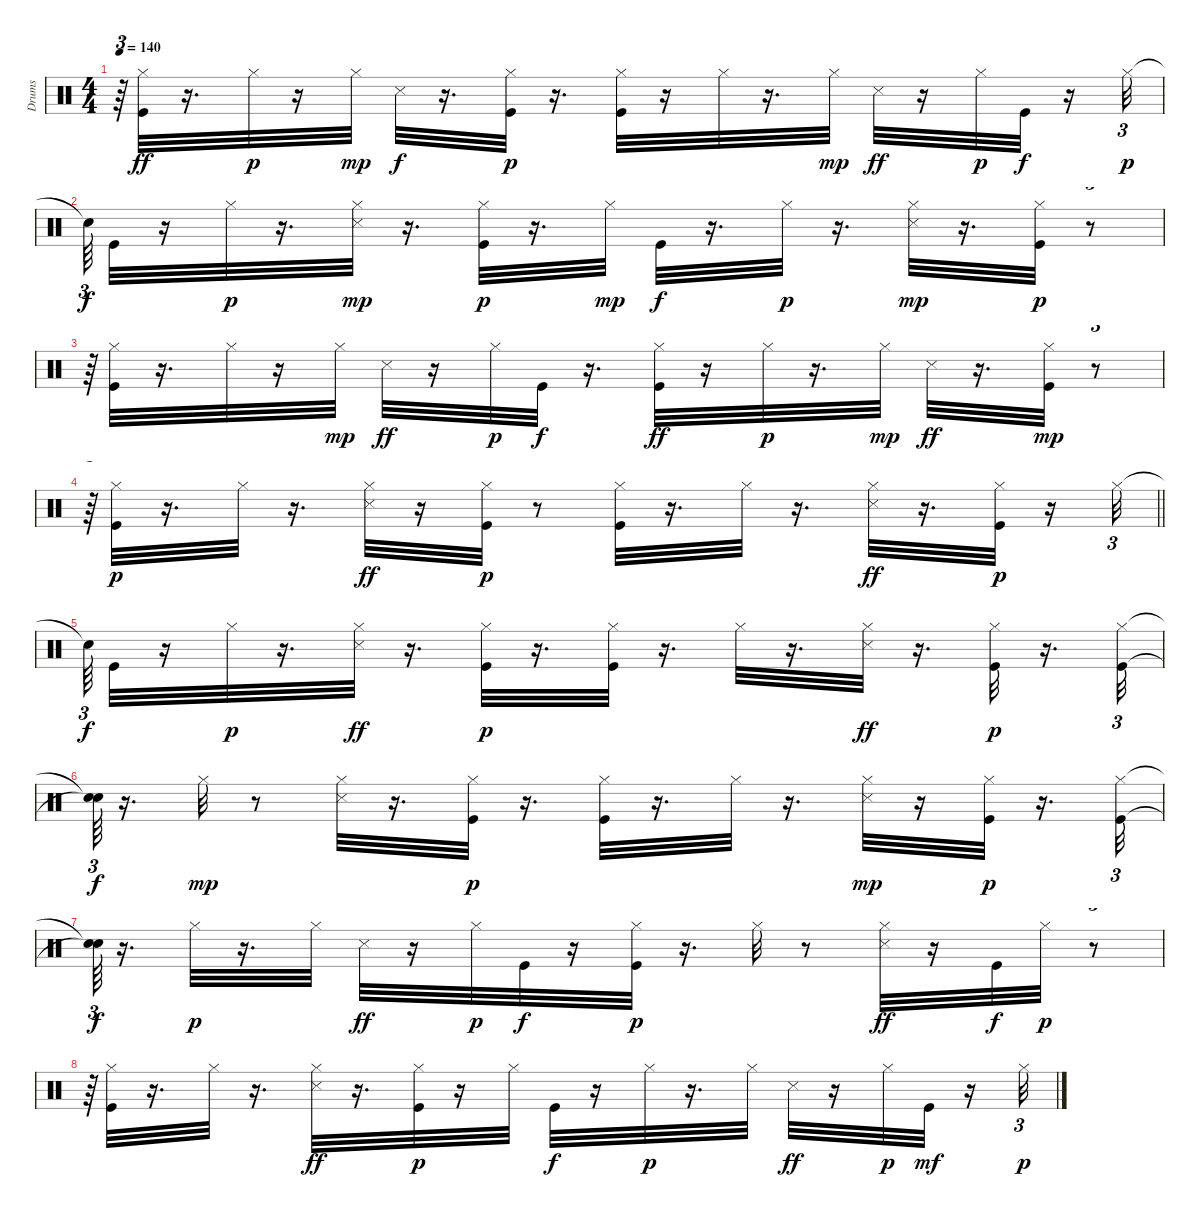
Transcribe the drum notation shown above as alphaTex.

\track ("Drums" "Drums") {instrument percussion}
\staff {score}
\articulation defaults
\ts (4 4)
\tempo 140
\clef neutral
\ks c
r.64{tu (3 2) dy p} ("Hi-Hat (closed)" "Kick (hit)").32{dy ff} r.16{d} "Hi-Hat (closed)".32{dy p} r.16 "Hi-Hat (closed)".32{dy mp} "Snare (side stick) 3".32{dy f} r.16{d} ("Hi-Hat (closed)" "Kick (hit)").32{dy p} r.16{d} ("Hi-Hat (closed)" "Kick (hit)").32 r.16 "Hi-Hat (closed)".32 r.16{d} "Hi-Hat (closed)".32{dy mp} "Snare (side stick) 3".32{dy ff} r.16 "Hi-Hat (closed)".32{dy p} "Kick (hit)".32{dy f} r.16 "Hi-Hat (closed)".32{tu (3 2) dy p} |
"Snare (hit)"{t}.64{tu (3 2) dy f} "Kick (hit)".32 r.16 "Hi-Hat (closed)".32{dy p} r.16{d} ("Hi-Hat (closed)" "Snare (side stick) 3").32{dy mp} r.16{d} ("Hi-Hat (closed)" "Kick (hit)").32{dy p} r.16{d} "Hi-Hat (closed)".32{dy mp} "Kick (hit)".32{dy f} r.16{d} "Hi-Hat (closed)".32{dy p} r.16{d} ("Hi-Hat (closed)" "Snare (side stick) 3").32{dy mp} r.16{d} ("Hi-Hat (closed)" "Kick (hit)").32{dy p} r.8{tu (3 2)} |
r.64{tu (3 2)} ("Hi-Hat (closed)" "Kick (hit)").32 r.16{d} "Hi-Hat (closed)".32 r.16 "Hi-Hat (closed)".32{dy mp} "Snare (side stick) 3".32{dy ff} r.16 "Hi-Hat (closed)".32{dy p} "Kick (hit)".32{dy f} r.16{d} ("Hi-Hat (closed)" "Kick (hit)").32{dy ff} r.16 "Hi-Hat (closed)".32{dy p} r.16{d} "Hi-Hat (closed)".32{dy mp} "Snare (side stick) 3".32{dy ff} r.16{d} ("Kick (hit)" "Hi-Hat (closed)").32{dy mp} r.8{tu (3 2)} |
\barLineRight lightlight
r.64{tu (3 2)} ("Kick (hit)" "Hi-Hat (closed)").32{dy p} r.16{d} "Hi-Hat (closed)".32 r.16{d} ("Hi-Hat (closed)" "Snare (side stick) 3").32{dy ff} r.16 ("Kick (hit)" "Hi-Hat (closed)").32{dy p} r.8 ("Hi-Hat (closed)" "Kick (hit)").32 r.16{d} "Hi-Hat (closed)".32 r.16{d} ("Hi-Hat (closed)" "Snare (side stick) 3").32{dy ff} r.16{d} ("Hi-Hat (closed)" "Kick (hit)").32{dy p} r.16 "Hi-Hat (closed)".32{tu (3 2)} |
\section ("" "")
"Snare (hit)"{t}.64{tu (3 2) dy f} "Kick (hit)".32 r.16 "Hi-Hat (closed)".32{dy p} r.16{d} ("Hi-Hat (closed)" "Snare (side stick) 3").32{dy ff} r.16{d} ("Hi-Hat (closed)" "Kick (hit)").32{dy p} r.16{d} ("Hi-Hat (closed)" "Kick (hit)").32 r.16{d} "Hi-Hat (closed)".32 r.16{d} ("Hi-Hat (closed)" "Snare (side stick) 3").32{dy ff} r.16{d} ("Kick (hit)" "Hi-Hat (closed)").32{dy p} r.16{d} ("Hi-Hat (closed)" "Kick (hit)").32{tu (3 2)} |
("Snare (hit)"{t} "Snare (hit)"{t}).64{tu (3 2) dy f} r.16{d} "Hi-Hat (closed)".32{dy mp} r.8 ("Hi-Hat (closed)" "Snare (side stick) 3").32 r.16{d} ("Hi-Hat (closed)" "Kick (hit)").32{dy p} r.16{d} ("Hi-Hat (closed)" "Kick (hit)").32 r.16{d} "Hi-Hat (closed)".32 r.16{d} ("Hi-Hat (closed)" "Snare (side stick) 3").32{dy mp} r.16 ("Kick (hit)" "Hi-Hat (closed)").32{dy p} r.16{d} ("Kick (hit)" "Hi-Hat (closed)").32{tu (3 2)} |
("Snare (hit)"{t} "Snare (hit)"{t}).64{tu (3 2) dy f} r.16{d} "Hi-Hat (closed)".32{dy p} r.16{d} "Hi-Hat (closed)".32 "Snare (side stick) 3".32{dy ff} r.16 "Hi-Hat (closed)".32{dy p} "Kick (hit)".32{dy f} r.16 ("Hi-Hat (closed)" "Kick (hit)").32{dy p} r.16{d} "Hi-Hat (closed)".32 r.8 ("Hi-Hat (closed)" "Snare (side stick) 3").32{dy ff} r.16 "Kick (hit)".32{dy f} "Hi-Hat (closed)".32{dy p} r.8{tu (3 2)} |
r.64{tu (3 2)} ("Kick (hit)" "Hi-Hat (closed)").32 r.16{d} "Hi-Hat (closed)".32 r.16{d} ("Hi-Hat (closed)" "Snare (side stick) 3").32{dy ff} r.16{d} ("Hi-Hat (closed)" "Kick (hit)").32{dy p} r.16 "Hi-Hat (closed)".32 "Kick (hit)".32{dy f} r.16 "Hi-Hat (closed)".32{dy p} r.16{d} "Hi-Hat (closed)".32 "Snare (side stick) 3".32{dy ff} r.16 "Hi-Hat (closed)".32{dy p} "Kick (hit)".32{dy mf} r.16 "Hi-Hat (closed)".32{tu (3 2) dy p}
